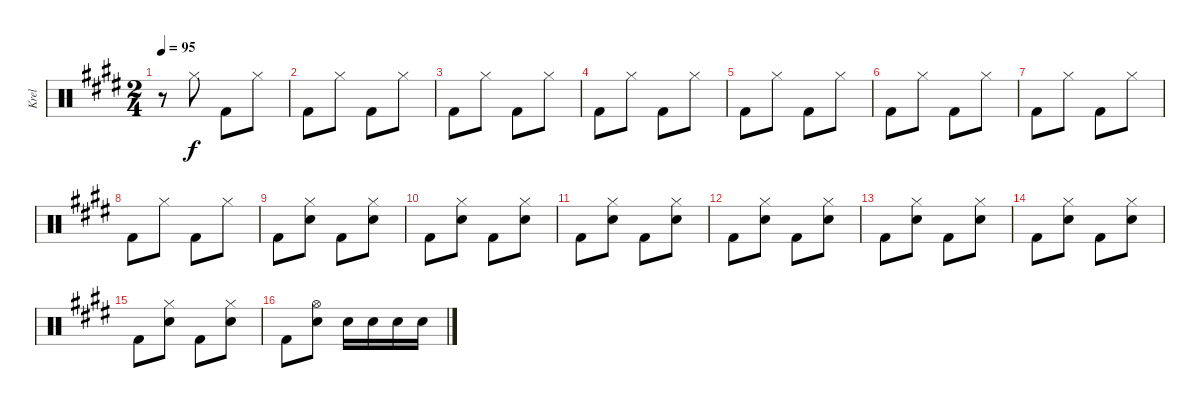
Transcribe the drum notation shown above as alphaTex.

\track ("Krel" "Krel") {instrument percussion}
\staff {score}
\articulation defaults
\ts (2 4)
\tempo 95
\clef neutral
\ks e
r.8{dy f} "Hi-Hat (closed)".8 "Kick (hit) 2".8 "Hi-Hat (closed)".8 |
"Kick (hit) 2".8 "Hi-Hat (closed)".8 "Kick (hit) 2".8 "Hi-Hat (closed)".8 |
"Kick (hit) 2".8 "Hi-Hat (closed)".8 "Kick (hit) 2".8 "Hi-Hat (closed)".8 |
"Kick (hit) 2".8 "Hi-Hat (closed)".8 "Kick (hit) 2".8 "Hi-Hat (closed)".8 |
"Kick (hit) 2".8 "Hi-Hat (closed)".8 "Kick (hit) 2".8 "Hi-Hat (closed)".8 |
"Kick (hit) 2".8 "Hi-Hat (closed)".8 "Kick (hit) 2".8 "Hi-Hat (closed)".8 |
"Kick (hit) 2".8 "Hi-Hat (closed)".8 "Kick (hit) 2".8 "Hi-Hat (closed)".8 |
"Kick (hit) 2".8 "Hi-Hat (closed)".8 "Kick (hit) 2".8 "Hi-Hat (closed)".8 |
"Kick (hit) 2".8 ("Hi-Hat (closed)" "Snare (hit) 2").8 "Kick (hit) 2".8 ("Hi-Hat (closed)" "Snare (hit) 2").8 |
"Kick (hit) 2".8 ("Hi-Hat (closed)" "Snare (hit) 2").8 "Kick (hit) 2".8 ("Hi-Hat (closed)" "Snare (hit) 2").8 |
"Kick (hit) 2".8 ("Hi-Hat (closed)" "Snare (hit) 2").8 "Kick (hit) 2".8 ("Hi-Hat (closed)" "Snare (hit) 2").8 |
"Kick (hit) 2".8 ("Hi-Hat (closed)" "Snare (hit) 2").8 "Kick (hit) 2".8 ("Hi-Hat (closed)" "Snare (hit) 2").8 |
"Kick (hit) 2".8 ("Hi-Hat (closed)" "Snare (hit) 2").8 "Kick (hit) 2".8 ("Hi-Hat (closed)" "Snare (hit) 2").8 |
"Kick (hit) 2".8 ("Hi-Hat (closed)" "Snare (hit) 2").8 "Kick (hit) 2".8 ("Hi-Hat (closed)" "Snare (hit) 2").8 |
"Kick (hit) 2".8 ("Hi-Hat (closed)" "Snare (hit) 2").8 "Kick (hit) 2".8 ("Hi-Hat (closed)" "Snare (hit) 2").8 |
"Kick (hit) 2".8 ("Hi-Hat (open)" "Snare (hit) 2").8 "Snare (hit) 2".16 "Snare (hit) 2".16 "Snare (hit) 2".16 "Snare (hit) 2".16
